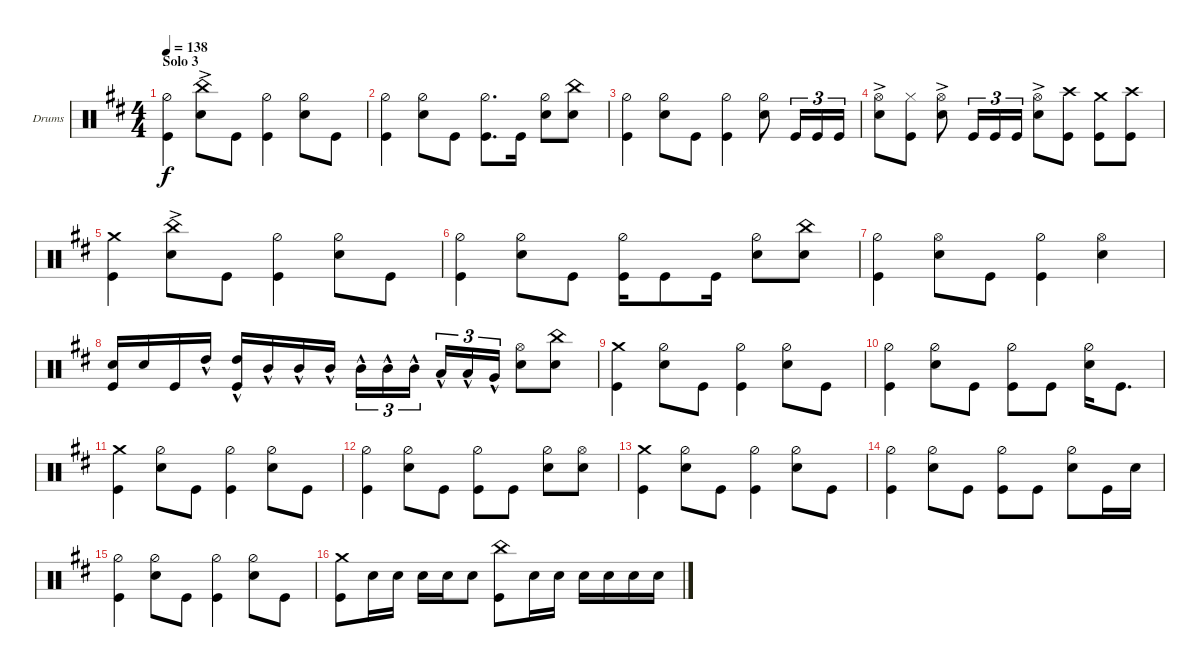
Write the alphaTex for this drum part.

\defaultSystemsLayout 4
\bracketExtendMode groupsimilarinstruments
\firstSystemTrackNameOrientation horizontal
\otherSystemsTrackNameOrientation horizontal
\track ("Drumkit" "Drums") {instrument percussion}
\staff {score}
\articulation defaults
\ts (4 4)
\section ("" "Solo 3")
\tempo 138
\clef neutral
\ks d
("Kick (hit)" "Hi-Hat (half)").4{dy f} ("Snare (hit) 2" "China (hit)"{ac}).8 "Kick (hit)".8 ("Kick (hit)" "Hi-Hat (half)").4 ("Snare (hit) 2" "Hi-Hat (half)").8 "Kick (hit)".8 |
("Kick (hit)" "Hi-Hat (half)").4 ("Snare (hit) 2" "Hi-Hat (half)").8 "Kick (hit)".8 ("Kick (hit)" "Hi-Hat (half)").8{d} "Kick (hit)".16 ("Snare (hit) 2" "Hi-Hat (half)").8 ("Snare (hit) 2" "China (hit)").8 |
("Kick (hit)" "Hi-Hat (half)").4 ("Snare (hit) 2" "Hi-Hat (half)").8 "Kick (hit)".8 ("Kick (hit)" "Hi-Hat (half)").4 ("Snare (hit) 2" "Hi-Hat (half)").8 "Kick (hit)".16{tu (3 2)} "Kick (hit)".16{tu (3 2)} "Kick (hit)".16{tu (3 2)} |
("Snare (hit) 2"{ac} "Hi-Hat (open)").8 ("Kick (hit)" "Hi-Hat (closed)").8 ("Snare (hit) 2"{ac} "Hi-Hat (open)").8 "Kick (hit)".16{tu (3 2)} "Kick (hit)".16{tu (3 2)} "Kick (hit)".16{tu (3 2)} ("Snare (hit) 2"{ac} "Hi-Hat (open)").8 ("Kick (hit)" "Crash high (hit)").8 ("Kick (hit)" "Crash medium (hit)").8 ("Kick (hit)" "Crash high (hit)").8 |
("Kick (hit)" "Crash medium (hit)").4 ("Snare (hit) 2" "China (hit)"{ac}).8 "Kick (hit)".8 ("Kick (hit)" "Hi-Hat (half)").4 ("Snare (hit) 2" "Hi-Hat (half)").8 "Kick (hit)".8 |
("Kick (hit)" "Hi-Hat (half)").4 ("Snare (hit) 2" "Hi-Hat (half)").8 "Kick (hit)".8 ("Kick (hit)" "Hi-Hat (half)").16 "Kick (hit)".8 "Kick (hit)".16 ("Snare (hit) 2" "Hi-Hat (half)").8 ("Snare (hit) 2" "China (hit)").8 |
("Kick (hit)" "Hi-Hat (half)").4 ("Snare (hit) 2" "Hi-Hat (open)").8 "Kick (hit)".8 ("Kick (hit)" "Hi-Hat (half)").4 ("Snare (hit) 2" "Hi-Hat (open)").4 |
("Snare (hit) 2" "Kick (hit)").16 "Snare (hit) 2".16 "Kick (hit)".16 "High Tom (hit)"{hac}.16 ("Kick (hit)" "High Tom (hit)"{hac}).16 "Mid Tom (hit)"{hac}.16 "Mid Tom (hit)"{hac}.16 "Mid Tom (hit)"{hac}.16 "Mid Tom (hit)"{hac}.16{tu (3 2)} "Mid Tom (hit)"{hac}.16{tu (3 2)} "Mid Tom (hit)"{hac}.16{tu (3 2)} "Low Tom (hit)"{hac}.16{tu (3 2)} "Low Tom (hit)"{hac}.16{tu (3 2)} "Very Low Tom (hit)"{hac}.16{tu (3 2)} ("Snare (hit) 2" "Hi-Hat (open)").8 ("Snare (hit) 2" "China (hit)").8 |
("Kick (hit)" "Crash medium (hit)").4 ("Snare (hit) 2" "Hi-Hat (half)").8 "Kick (hit)".8 ("Kick (hit)" "Hi-Hat (half)").4 ("Snare (hit) 2" "Hi-Hat (half)").8 "Kick (hit)".8 |
("Kick (hit)" "Hi-Hat (half)").4 ("Snare (hit) 2" "Hi-Hat (half)").8 "Kick (hit)".8 ("Kick (hit)" "Hi-Hat (half)").8 "Kick (hit)".8 ("Snare (hit) 2" "Hi-Hat (half)").16 "Kick (hit)".8{d} |
("Kick (hit)" "Crash medium (hit)").4 ("Snare (hit) 2" "Hi-Hat (half)").8 "Kick (hit)".8 ("Kick (hit)" "Hi-Hat (half)").4 ("Snare (hit) 2" "Hi-Hat (half)").8 "Kick (hit)".8 |
("Kick (hit)" "Hi-Hat (half)").4 ("Snare (hit) 2" "Hi-Hat (half)").8 "Kick (hit)".8 ("Kick (hit)" "Hi-Hat (half)").8 "Kick (hit)".8 ("Snare (hit) 2" "Hi-Hat (half)").8 ("Snare (hit) 2" "Hi-Hat (open)").8 |
("Kick (hit)" "Crash medium (hit)").4 ("Snare (hit) 2" "Hi-Hat (half)").8 "Kick (hit)".8 ("Kick (hit)" "Hi-Hat (half)").4 ("Snare (hit) 2" "Hi-Hat (half)").8 "Kick (hit)".8 |
("Kick (hit)" "Hi-Hat (half)").4 ("Snare (hit) 2" "Hi-Hat (half)").8 "Kick (hit)".8 ("Kick (hit)" "Hi-Hat (half)").8 "Kick (hit)".8 ("Snare (hit) 2" "Hi-Hat (half)").8 "Kick (hit)".16 "Snare (hit) 2".16 |
("Kick (hit)" "Hi-Hat (half)").4 ("Snare (hit) 2" "Hi-Hat (half)").8 "Kick (hit)".8 ("Kick (hit)" "Hi-Hat (half)").4 ("Snare (hit) 2" "Hi-Hat (half)").8 "Kick (hit)".8 |
("Kick (hit)" "Crash medium (hit)").8 "Snare (hit) 2".16 "Snare (hit) 2".16 "Snare (hit) 2".16 "Snare (hit) 2".16 "Snare (hit) 2".8 ("Kick (hit)" "China (hit)").8 "Snare (hit) 2".16 "Snare (hit) 2".16 "Snare (hit) 2".16 "Snare (hit) 2".16 "Snare (hit) 2".16 "Snare (hit) 2".16
